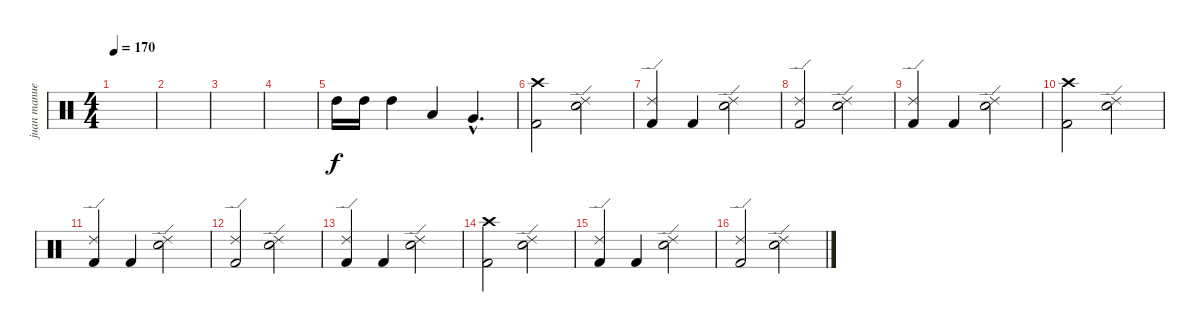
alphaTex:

\track ("juan manuel" "juan manue") {instrument percussion}
\staff {score}
\articulation defaults
\ts (4 4)
\tempo 170
\clef neutral
\ks c
|
|
|
|
"High Tom (hit)".16 "High Tom (hit)".16 "High Tom (hit)".4 "Low Tom (hit)".4 "Very Low Tom (hit)"{hac}.4{d} |
("Crash high (hit)" "Kick (hit) 2").2 ("Ride (edge) 2" "Electric Snare (hit)").2 |
("Ride (edge) 2" "Kick (hit) 2").4 "Kick (hit) 2".4 ("Ride (edge) 2" "Electric Snare (hit)").2 |
("Ride (edge) 2" "Kick (hit) 2").2 ("Ride (edge) 2" "Electric Snare (hit)").2 |
("Ride (edge) 2" "Kick (hit) 2").4 "Kick (hit) 2".4 ("Ride (edge) 2" "Electric Snare (hit)").2 |
("Crash high (hit)" "Kick (hit) 2").2 ("Ride (edge) 2" "Electric Snare (hit)").2 |
("Ride (edge) 2" "Kick (hit) 2").4 "Kick (hit) 2".4 ("Ride (edge) 2" "Electric Snare (hit)").2 |
("Ride (edge) 2" "Kick (hit) 2").2 ("Ride (edge) 2" "Electric Snare (hit)").2 |
("Ride (edge) 2" "Kick (hit) 2").4 "Kick (hit) 2".4 ("Ride (edge) 2" "Electric Snare (hit)").2 |
("Crash high (hit)" "Kick (hit) 2").2 ("Ride (edge) 2" "Electric Snare (hit)").2 |
("Ride (edge) 2" "Kick (hit) 2").4 "Kick (hit) 2".4 ("Ride (edge) 2" "Electric Snare (hit)").2 |
("Ride (edge) 2" "Kick (hit) 2").2 ("Ride (edge) 2" "Electric Snare (hit)").2
